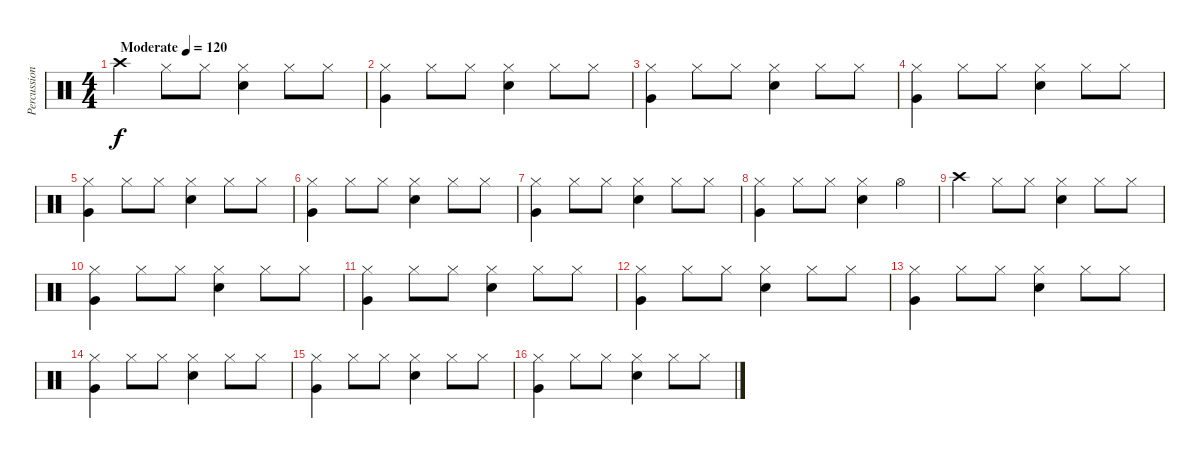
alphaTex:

\track ("Percussion" "Percussion") {instrument percussion}
\staff {score}
\articulation defaults
\ts (4 4)
\tempo (120 "Moderate")
\clef neutral
\ks c "Crash high (hit)".4{dy f} "Hi-Hat (closed)".8 "Hi-Hat (closed)".8
("Hi-Hat (closed)" "Snare (hit) 2").4 "Hi-Hat (closed)".8 "Hi-Hat (closed)".8 |
("Hi-Hat (closed)" "Very Low Tom (hit)").4 "Hi-Hat (closed)".8 "Hi-Hat (closed)".8 ("Hi-Hat (closed)" "Snare (hit) 2").4 "Hi-Hat (closed)".8 "Hi-Hat (closed)".8 |
("Hi-Hat (closed)" "Very Low Tom (hit)").4 "Hi-Hat (closed)".8 "Hi-Hat (closed)".8 ("Hi-Hat (closed)" "Snare (hit) 2").4 "Hi-Hat (closed)".8 "Hi-Hat (closed)".8 |
("Hi-Hat (closed)" "Very Low Tom (hit)").4 "Hi-Hat (closed)".8 "Hi-Hat (closed)".8 ("Hi-Hat (closed)" "Snare (hit) 2").4 "Hi-Hat (closed)".8 "Hi-Hat (closed)".8 |
("Hi-Hat (closed)" "Very Low Tom (hit)").4 "Hi-Hat (closed)".8 "Hi-Hat (closed)".8 ("Hi-Hat (closed)" "Snare (hit) 2").4 "Hi-Hat (closed)".8 "Hi-Hat (closed)".8 |
("Hi-Hat (closed)" "Very Low Tom (hit)").4 "Hi-Hat (closed)".8 "Hi-Hat (closed)".8 ("Hi-Hat (closed)" "Snare (hit) 2").4 "Hi-Hat (closed)".8 "Hi-Hat (closed)".8 |
("Hi-Hat (closed)" "Very Low Tom (hit)").4 "Hi-Hat (closed)".8 "Hi-Hat (closed)".8 ("Hi-Hat (closed)" "Snare (hit) 2").4 "Hi-Hat (closed)".8 "Hi-Hat (closed)".8 |
("Hi-Hat (closed)" "Very Low Tom (hit)").4 "Hi-Hat (closed)".8 "Hi-Hat (closed)".8 ("Hi-Hat (closed)" "Snare (hit) 2").4 "Hi-Hat (open)".4 |
"Crash high (hit)".4 "Hi-Hat (closed)".8 "Hi-Hat (closed)".8 ("Hi-Hat (closed)" "Snare (hit) 2").4 "Hi-Hat (closed)".8 "Hi-Hat (closed)".8 |
("Hi-Hat (closed)" "Very Low Tom (hit)").4 "Hi-Hat (closed)".8 "Hi-Hat (closed)".8 ("Hi-Hat (closed)" "Snare (hit) 2").4 "Hi-Hat (closed)".8 "Hi-Hat (closed)".8 |
("Hi-Hat (closed)" "Very Low Tom (hit)").4 "Hi-Hat (closed)".8 "Hi-Hat (closed)".8 ("Hi-Hat (closed)" "Snare (hit) 2").4 "Hi-Hat (closed)".8 "Hi-Hat (closed)".8 |
("Hi-Hat (closed)" "Very Low Tom (hit)").4 "Hi-Hat (closed)".8 "Hi-Hat (closed)".8 ("Hi-Hat (closed)" "Snare (hit) 2").4 "Hi-Hat (closed)".8 "Hi-Hat (closed)".8 |
("Hi-Hat (closed)" "Very Low Tom (hit)").4 "Hi-Hat (closed)".8 "Hi-Hat (closed)".8 ("Hi-Hat (closed)" "Snare (hit) 2").4 "Hi-Hat (closed)".8 "Hi-Hat (closed)".8 |
("Hi-Hat (closed)" "Very Low Tom (hit)").4 "Hi-Hat (closed)".8 "Hi-Hat (closed)".8 ("Hi-Hat (closed)" "Snare (hit) 2").4 "Hi-Hat (closed)".8 "Hi-Hat (closed)".8 |
("Hi-Hat (closed)" "Very Low Tom (hit)").4 "Hi-Hat (closed)".8 "Hi-Hat (closed)".8 ("Hi-Hat (closed)" "Snare (hit) 2").4 "Hi-Hat (closed)".8 "Hi-Hat (closed)".8 |
("Hi-Hat (closed)" "Very Low Tom (hit)").4 "Hi-Hat (closed)".8 "Hi-Hat (closed)".8 ("Hi-Hat (closed)" "Snare (hit) 2").4 "Hi-Hat (closed)".8 "Hi-Hat (closed)".8
